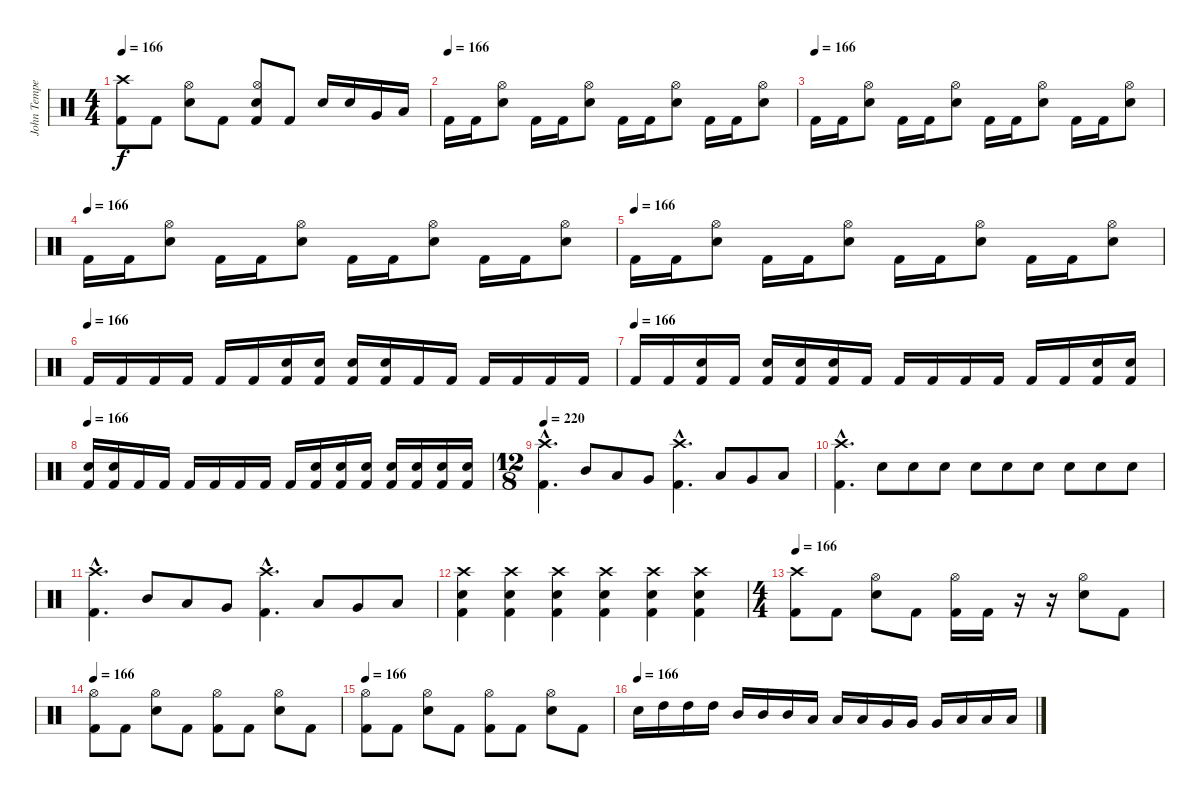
\track ("John Tempesta" "John Tempe") {instrument percussion}
\staff {score}
\articulation defaults
\ts (4 4)
\tempo 166
\clef neutral
\ks c
("Crash high (hit)" "Kick (hit) 2").8{dy f} "Kick (hit) 2".8 ("Hi-Hat (open)" "Electric Snare (hit)").8 "Kick (hit) 2".8 ("Hi-Hat (open)" "Electric Snare (hit)" "Kick (hit) 2").8 "Kick (hit) 2".8 "Electric Snare (hit)".16 "Electric Snare (hit)".16 "Very Low Tom (hit)".16 "Low Floor Tom (hit)".16 |
\tempo (166)
"Kick (hit) 2".16 "Kick (hit) 2".16 ("Hi-Hat (open)" "Electric Snare (hit)").8 "Kick (hit) 2".16 "Kick (hit) 2".16 ("Hi-Hat (open)" "Electric Snare (hit)").8 "Kick (hit) 2".16 "Kick (hit) 2".16 ("Hi-Hat (open)" "Electric Snare (hit)").8 "Kick (hit) 2".16 "Kick (hit) 2".16 ("Hi-Hat (open)" "Electric Snare (hit)").8 |
\tempo (166)
"Kick (hit) 2".16 "Kick (hit) 2".16 ("Hi-Hat (open)" "Electric Snare (hit)").8 "Kick (hit) 2".16 "Kick (hit) 2".16 ("Hi-Hat (open)" "Electric Snare (hit)").8 "Kick (hit) 2".16 "Kick (hit) 2".16 ("Hi-Hat (open)" "Electric Snare (hit)").8 "Kick (hit) 2".16 "Kick (hit) 2".16 ("Hi-Hat (open)" "Electric Snare (hit)").8 |
\tempo (166)
"Kick (hit) 2".16 "Kick (hit) 2".16 ("Hi-Hat (open)" "Electric Snare (hit)").8 "Kick (hit) 2".16 "Kick (hit) 2".16 ("Hi-Hat (open)" "Electric Snare (hit)").8 "Kick (hit) 2".16 "Kick (hit) 2".16 ("Hi-Hat (open)" "Electric Snare (hit)").8 "Kick (hit) 2".16 "Kick (hit) 2".16 ("Hi-Hat (open)" "Electric Snare (hit)").8 |
\tempo (166)
"Kick (hit) 2".16 "Kick (hit) 2".16 ("Hi-Hat (open)" "Electric Snare (hit)").8 "Kick (hit) 2".16 "Kick (hit) 2".16 ("Hi-Hat (open)" "Electric Snare (hit)").8 "Kick (hit) 2".16 "Kick (hit) 2".16 ("Hi-Hat (open)" "Electric Snare (hit)").8 "Kick (hit) 2".16 "Kick (hit) 2".16 ("Hi-Hat (open)" "Electric Snare (hit)").8 |
\tempo (166)
"Kick (hit) 2".16 "Kick (hit) 2".16 "Kick (hit) 2".16 "Kick (hit) 2".16 "Kick (hit) 2".16 "Kick (hit) 2".16 ("Electric Snare (hit)" "Kick (hit) 2").16 ("Electric Snare (hit)" "Kick (hit) 2").16 ("Electric Snare (hit)" "Kick (hit) 2").16 ("Electric Snare (hit)" "Kick (hit) 2").16 "Kick (hit) 2".16 "Kick (hit) 2".16 "Kick (hit) 2".16 "Kick (hit) 2".16 "Kick (hit) 2".16 "Kick (hit) 2".16 |
\tempo (166)
"Kick (hit) 2".16 "Kick (hit) 2".16 ("Electric Snare (hit)" "Kick (hit) 2").16 "Kick (hit) 2".16 ("Electric Snare (hit)" "Kick (hit) 2").16 ("Electric Snare (hit)" "Kick (hit) 2").16 ("Electric Snare (hit)" "Kick (hit) 2").16 "Kick (hit) 2".16 "Kick (hit) 2".16 "Kick (hit) 2".16 "Kick (hit) 2".16 "Kick (hit) 2".16 "Kick (hit) 2".16 "Kick (hit) 2".16 ("Electric Snare (hit)" "Kick (hit) 2").16 ("Electric Snare (hit)" "Kick (hit) 2").16 |
\tempo 166
("Electric Snare (hit)" "Kick (hit) 2").16 ("Electric Snare (hit)" "Kick (hit) 2").16 "Kick (hit) 2".16 "Kick (hit) 2".16 "Kick (hit) 2".16 "Kick (hit) 2".16 "Kick (hit) 2".16 "Kick (hit) 2".16 "Kick (hit) 2".16 ("Electric Snare (hit)" "Kick (hit) 2").16 ("Electric Snare (hit)" "Kick (hit) 2").16 ("Electric Snare (hit)" "Kick (hit) 2").16 ("Electric Snare (hit)" "Kick (hit) 2").16 ("Electric Snare (hit)" "Kick (hit) 2").16 ("Electric Snare (hit)" "Kick (hit) 2").16 ("Electric Snare (hit)" "Kick (hit) 2").16 |
\ts (12 8)
\tempo 220
("Crash high (hit)"{hac} "Kick (hit) 2"{hac}).4{d} "Mid Tom (hit)".8 "Low Tom (hit)".8 "Very Low Tom (hit)".8 ("Crash high (hit)"{hac} "Kick (hit) 2"{hac}).4{d} "Low Tom (hit)".8 "Very Low Tom (hit)".8 "Low Floor Tom (hit)".8 |
("Crash high (hit)"{hac} "Kick (hit) 2"{hac}).4{d} "Electric Snare (hit)".8 "Electric Snare (hit)".8 "Electric Snare (hit)".8 "Electric Snare (hit)".8 "Electric Snare (hit)".8 "Electric Snare (hit)".8 "Electric Snare (hit)".8 "Electric Snare (hit)".8 "Electric Snare (hit)".8 |
("Crash high (hit)"{hac} "Kick (hit) 2"{hac}).4{d} "Mid Tom (hit)".8 "Low Tom (hit)".8 "Very Low Tom (hit)".8 ("Crash high (hit)"{hac} "Kick (hit) 2"{hac}).4{d} "Low Tom (hit)".8 "Very Low Tom (hit)".8 "Low Floor Tom (hit)".8 |
("Crash high (hit)" "Electric Snare (hit)" "Kick (hit) 2").4 ("Crash high (hit)" "Electric Snare (hit)" "Kick (hit) 2").4 ("Crash high (hit)" "Electric Snare (hit)" "Kick (hit) 2").4 ("Crash high (hit)" "Electric Snare (hit)" "Kick (hit) 2").4 ("Crash high (hit)" "Electric Snare (hit)" "Kick (hit) 2").4 ("Crash high (hit)" "Electric Snare (hit)" "Kick (hit) 2").4 |
\ts (4 4)
\tempo 166
("Crash high (hit)" "Kick (hit) 2").8 "Kick (hit) 2".8 ("Hi-Hat (open)" "Electric Snare (hit)").8 "Kick (hit) 2".8 ("Hi-Hat (open)" "Kick (hit) 2").16 "Kick (hit) 2".16 r.16 r.16 ("Hi-Hat (open)" "Electric Snare (hit)").8 "Kick (hit) 2".8 |
\tempo 166
("Hi-Hat (open)" "Kick (hit) 2").8 "Kick (hit) 2".8 ("Hi-Hat (open)" "Electric Snare (hit)").8 "Kick (hit) 2".8 ("Hi-Hat (open)" "Kick (hit) 2").8 "Kick (hit) 2".8 ("Hi-Hat (open)" "Electric Snare (hit)").8 "Kick (hit) 2".8 |
\tempo 166
("Hi-Hat (open)" "Kick (hit) 2").8 "Kick (hit) 2".8 ("Hi-Hat (open)" "Electric Snare (hit)").8 "Kick (hit) 2".8 ("Hi-Hat (open)" "Kick (hit) 2").8 "Kick (hit) 2".8 ("Hi-Hat (open)" "Electric Snare (hit)").8 "Kick (hit) 2".8 |
\tempo (166)
"Electric Snare (hit)".16 "High Tom (hit)".16 "High Tom (hit)".16 "High Tom (hit)".16 "Mid Tom (hit)".16 "Mid Tom (hit)".16 "Mid Tom (hit)".16 "Low Tom (hit)".16 "Low Tom (hit)".16 "Low Tom (hit)".16 "Very Low Tom (hit)".16 "Very Low Tom (hit)".16 "Very Low Tom (hit)".16 "Low Floor Tom (hit)".16 "Low Floor Tom (hit)".16 "Low Floor Tom (hit)".16
